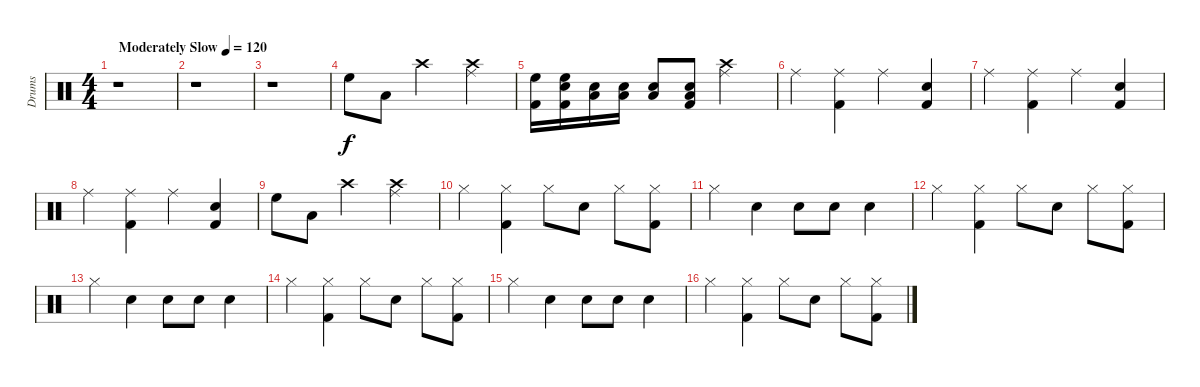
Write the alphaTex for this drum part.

\track ("Drums" "Drums") {instrument percussion}
\staff {score}
\articulation defaults
\ts (4 4)
\tempo (120 "Moderately Slow")
\clef neutral
\ks c
r.1{dy f} |
r.1 |
r.1 |
"High Floor Tom (hit)".8 "Low Tom (hit)".8 "Crash high (hit)".2 ("Ride (middle)" "Crash high (hit)").4 |
("Kick (hit) 2" "High Floor Tom (hit)").16 ("Kick (hit) 2" "Snare (hit) 2" "High Floor Tom (hit)").16 ("Snare (hit) 2" "Low Tom (hit)").16 ("Snare (hit) 2" "Low Tom (hit)").16 ("Snare (hit) 2" "Low Floor Tom (hit)").8 ("Kick (hit) 2" "Snare (hit) 2" "Low Floor Tom (hit)").8 ("Ride (middle)" "Crash high (hit)").2 |
"Ride (middle)".4 ("Kick (hit) 2" "Ride (middle)").4 "Ride (middle)".4 ("Kick (hit) 2" "Snare (hit) 2").4 |
"Ride (middle)".4 ("Kick (hit) 2" "Ride (middle)").4 "Ride (middle)".4 ("Kick (hit) 2" "Snare (hit) 2").4 |
"Ride (middle)".4 ("Kick (hit) 2" "Ride (middle)").4 "Ride (middle)".4 ("Kick (hit) 2" "Snare (hit) 2").4 |
"High Floor Tom (hit)".8 "Low Tom (hit)".8 "Crash high (hit)".2 ("Ride (middle)" "Crash high (hit)").4 |
"Hi-Hat (closed)".4 ("Kick (hit) 2" "Hi-Hat (closed)").4 "Hi-Hat (closed)".8 "Snare (hit) 2".8 "Hi-Hat (closed)".8 ("Kick (hit) 2" "Hi-Hat (closed)").8 |
"Hi-Hat (closed)".4 "Snare (hit) 2".4 "Snare (hit) 2".8 "Snare (hit) 2".8 "Snare (hit) 2".4 |
"Hi-Hat (closed)".4 ("Kick (hit) 2" "Hi-Hat (closed)").4 "Hi-Hat (closed)".8 "Snare (hit) 2".8 "Hi-Hat (closed)".8 ("Kick (hit) 2" "Hi-Hat (closed)").8 |
"Hi-Hat (closed)".4 "Snare (hit) 2".4 "Snare (hit) 2".8 "Snare (hit) 2".8 "Snare (hit) 2".4 |
"Hi-Hat (closed)".4 ("Kick (hit) 2" "Hi-Hat (closed)").4 "Hi-Hat (closed)".8 "Snare (hit) 2".8 "Hi-Hat (closed)".8 ("Kick (hit) 2" "Hi-Hat (closed)").8 |
"Hi-Hat (closed)".4 "Snare (hit) 2".4 "Snare (hit) 2".8 "Snare (hit) 2".8 "Snare (hit) 2".4 |
"Hi-Hat (closed)".4 ("Kick (hit) 2" "Hi-Hat (closed)").4 "Hi-Hat (closed)".8 "Snare (hit) 2".8 "Hi-Hat (closed)".8 ("Kick (hit) 2" "Hi-Hat (closed)").8
